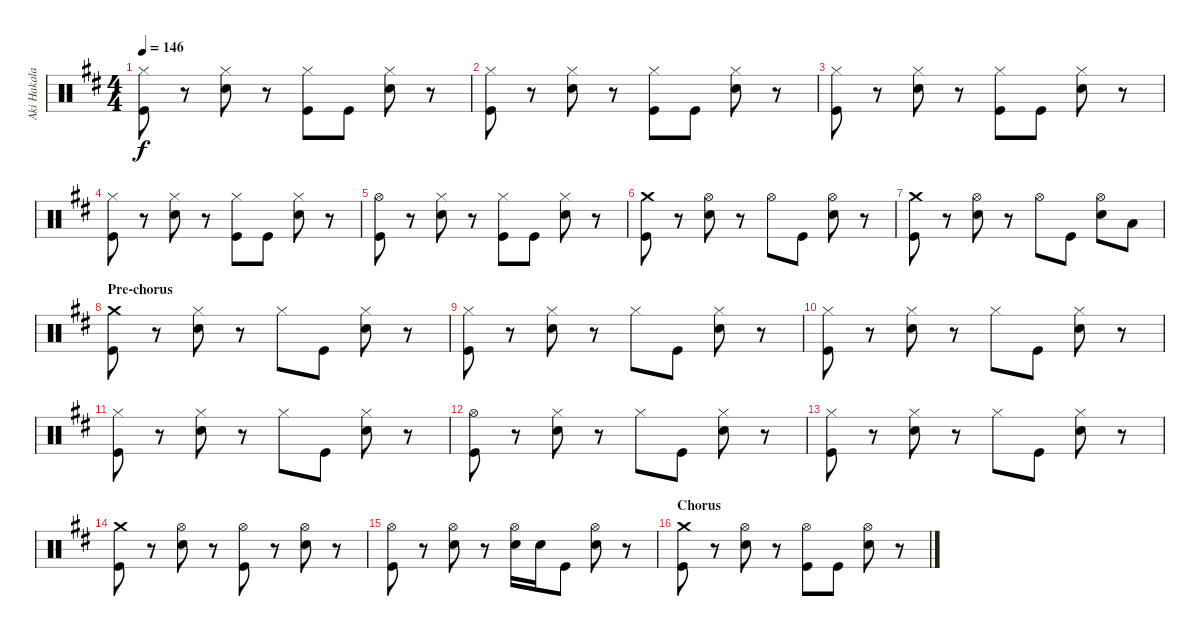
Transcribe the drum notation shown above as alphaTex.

\track ("Aki Hakala" "Aki Hakala") {instrument percussion}
\staff {score}
\articulation defaults
\ts (4 4)
\tempo 146
\clef neutral
\ks d
("Hi-Hat (closed)" "Kick (hit)").8{dy f} r.8 ("Hi-Hat (closed)" "Electric Snare (hit)").8 r.8 ("Hi-Hat (closed)" "Kick (hit)").8 "Kick (hit)".8 ("Hi-Hat (closed)" "Electric Snare (hit)").8 r.8 |
("Hi-Hat (closed)" "Kick (hit)").8 r.8 ("Hi-Hat (closed)" "Electric Snare (hit)").8 r.8 ("Hi-Hat (closed)" "Kick (hit)").8 "Kick (hit)".8 ("Hi-Hat (closed)" "Electric Snare (hit)").8 r.8 |
("Hi-Hat (closed)" "Kick (hit)").8 r.8 ("Hi-Hat (closed)" "Electric Snare (hit)").8 r.8 ("Hi-Hat (closed)" "Kick (hit)").8 "Kick (hit)".8 ("Hi-Hat (closed)" "Electric Snare (hit)").8 r.8 |
("Hi-Hat (closed)" "Kick (hit)").8 r.8 ("Hi-Hat (closed)" "Electric Snare (hit)").8 r.8 ("Hi-Hat (closed)" "Kick (hit)").8 "Kick (hit)".8 ("Hi-Hat (closed)" "Electric Snare (hit)").8 r.8 |
("Hi-Hat (open)" "Kick (hit)").8 r.8 ("Hi-Hat (closed)" "Electric Snare (hit)").8 r.8 ("Hi-Hat (closed)" "Kick (hit)").8 "Kick (hit)".8 ("Hi-Hat (closed)" "Electric Snare (hit)").8 r.8 |
("Crash medium (hit)" "Kick (hit)").8 r.8 ("Hi-Hat (open)" "Electric Snare (hit)").8 r.8 "Hi-Hat (open)".8 "Kick (hit)".8 ("Hi-Hat (open)" "Electric Snare (hit)").8 r.8 |
("Crash medium (hit)" "Kick (hit)").8 r.8 ("Hi-Hat (open)" "Electric Snare (hit)").8 r.8 "Hi-Hat (open)".8 "Kick (hit)".8 ("Hi-Hat (open)" "Electric Snare (hit)").8 "Low Tom (hit)".8 |
\section ("" "Pre-chorus")
("Crash medium (hit)" "Kick (hit)").8 r.8 ("Hi-Hat (closed)" "Electric Snare (hit)").8 r.8 "Hi-Hat (closed)".8 "Kick (hit)".8 ("Hi-Hat (closed)" "Electric Snare (hit)").8 r.8 |
("Hi-Hat (closed)" "Kick (hit)").8 r.8 ("Hi-Hat (closed)" "Electric Snare (hit)").8 r.8 "Hi-Hat (closed)".8 "Kick (hit)".8 ("Hi-Hat (closed)" "Electric Snare (hit)").8 r.8 |
("Hi-Hat (closed)" "Kick (hit)").8 r.8 ("Hi-Hat (closed)" "Electric Snare (hit)").8 r.8 "Hi-Hat (closed)".8 "Kick (hit)".8 ("Hi-Hat (closed)" "Electric Snare (hit)").8 r.8 |
("Hi-Hat (closed)" "Kick (hit)").8 r.8 ("Hi-Hat (closed)" "Electric Snare (hit)").8 r.8 "Hi-Hat (closed)".8 "Kick (hit)".8 ("Hi-Hat (closed)" "Electric Snare (hit)").8 r.8 |
("Hi-Hat (open)" "Kick (hit)").8 r.8 ("Hi-Hat (closed)" "Electric Snare (hit)").8 r.8 "Hi-Hat (closed)".8 "Kick (hit)".8 ("Hi-Hat (closed)" "Electric Snare (hit)").8 r.8 |
("Hi-Hat (closed)" "Kick (hit)").8 r.8 ("Hi-Hat (closed)" "Electric Snare (hit)").8 r.8 "Hi-Hat (closed)".8 "Kick (hit)".8 ("Hi-Hat (closed)" "Electric Snare (hit)").8 r.8 |
("Crash medium (hit)" "Kick (hit)").8 r.8 ("Hi-Hat (open)" "Electric Snare (hit)").8 r.8 ("Hi-Hat (open)" "Kick (hit)").8 r.8 ("Hi-Hat (open)" "Electric Snare (hit)").8 r.8 |
("Hi-Hat (open)" "Kick (hit)").8 r.8 ("Hi-Hat (open)" "Electric Snare (hit)").8 r.8 ("Hi-Hat (open)" "Electric Snare (hit)").16 "Electric Snare (hit)".16 "Kick (hit)".8 ("Hi-Hat (open)" "Electric Snare (hit)").8 r.8 |
\section ("" "Chorus")
("Crash medium (hit)" "Kick (hit)").8 r.8 ("Hi-Hat (open)" "Electric Snare (hit)").8 r.8 ("Hi-Hat (open)" "Kick (hit)").8 "Kick (hit)".8 ("Hi-Hat (open)" "Electric Snare (hit)").8 r.8
